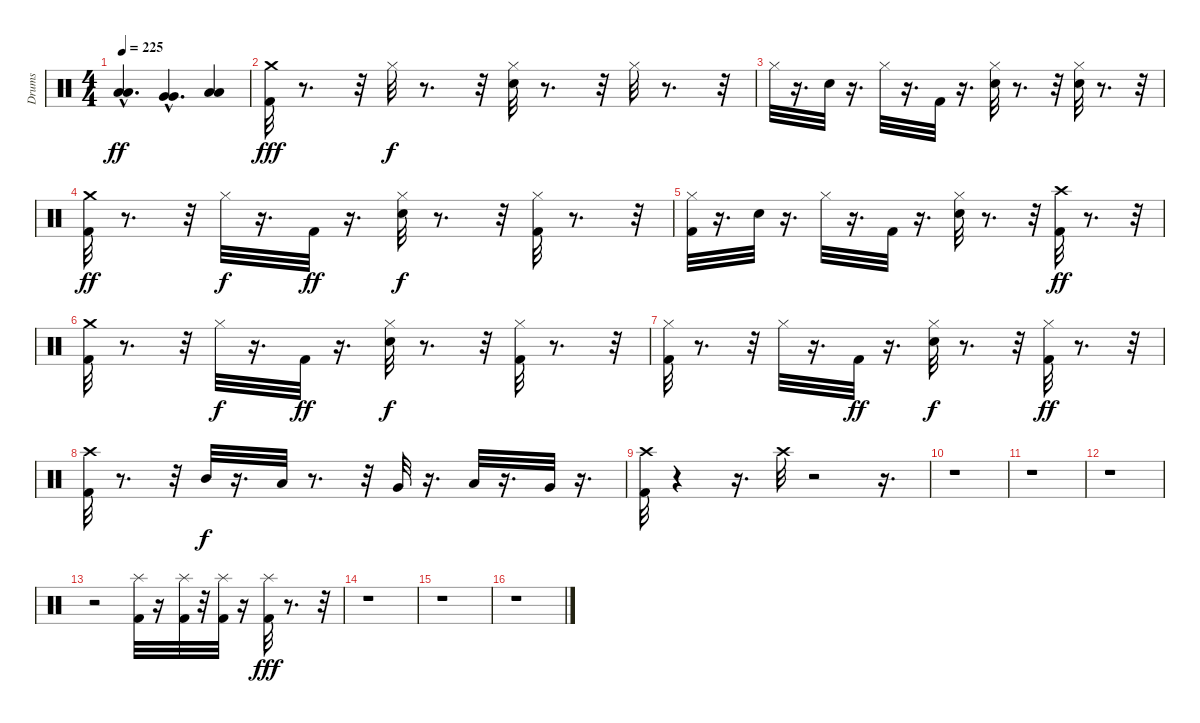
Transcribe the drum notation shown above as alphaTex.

\track ("Drums" "Drums") {instrument percussion}
\staff {score}
\articulation defaults
\ts (4 4)
\tempo 225
\clef neutral
\ks c
("Low Tom (hit)"{hac} "Low Tom (hit)").4{d dy ff} ("Very Low Tom (hit)"{hac} "Very Low Tom (hit)").4{d} ("Low Floor Tom (hit)" "Low Floor Tom (hit)").4 |
("Kick (hit) 2" "Crash medium (hit)").32{dy fff} r.8{d} r.32 "Hi-Hat (closed)".32{dy f} r.8{d} r.32 ("Hi-Hat (closed)" "Snare (hit) 2").32 r.8{d} r.32 "Hi-Hat (closed)".32 r.8{d} r.32 |
"Hi-Hat (closed)".32 r.16{d} "Snare (hit) 2".32 r.16{d} "Hi-Hat (closed)".32 r.16{d} "Kick (hit) 2".32 r.16{d} ("Hi-Hat (closed)" "Snare (hit) 2").32 r.8{d} r.32 ("Hi-Hat (closed)" "Snare (hit) 2").32 r.8{d} r.32 |
("Crash medium (hit)" "Kick (hit) 2").32{dy ff} r.8{d} r.32 "Hi-Hat (closed)".32{dy f} r.16{d} "Kick (hit) 2".32{dy ff} r.16{d} ("Hi-Hat (closed)" "Snare (hit) 2").32{dy f} r.8{d} r.32 ("Kick (hit) 2" "Hi-Hat (closed)").32 r.8{d} r.32 |
("Kick (hit) 2" "Hi-Hat (closed)").32 r.16{d} "Snare (hit) 2".32 r.16{d} "Hi-Hat (closed)".32 r.16{d} "Kick (hit) 2".32 r.16{d} ("Hi-Hat (closed)" "Snare (hit) 2").32 r.8{d} r.32 ("Kick (hit) 2" "Crash high (hit)").32{dy ff} r.8{d} r.32 |
("Kick (hit) 2" "Crash medium (hit)").32 r.8{d} r.32 "Hi-Hat (closed)".32{dy f} r.16{d} "Kick (hit) 2".32{dy ff} r.16{d} ("Snare (hit) 2" "Hi-Hat (closed)").32{dy f} r.8{d} r.32 ("Kick (hit) 2" "Hi-Hat (closed)").32 r.8{d} r.32 |
("Kick (hit) 2" "Hi-Hat (closed)").32 r.8{d} r.32 "Hi-Hat (closed)".32 r.16{d} "Kick (hit) 2".32{dy ff} r.16{d} ("Snare (hit) 2" "Hi-Hat (closed)").32{dy f} r.8{d} r.32 ("Hi-Hat (closed)" "Kick (hit) 2").32{dy ff} r.8{d} r.32 |
("Crash high (hit)" "Kick (hit) 2").32 r.8{d} r.32 "Mid Tom (hit)".32{dy f} r.16{d} "Low Tom (hit)".32 r.8{d} r.32 "Very Low Tom (hit)".32 r.16{d} "Low Tom (hit)".32 r.16{d} "Very Low Tom (hit)".32 r.16{d} |
("Crash high (hit)" "Kick (hit) 2").32 r.4 r.16{d} "Crash high (hit)".32 r.2 r.16{d} |
r.1 |
r.1 |
r.1 |
r.2 ("Kick (hit) 2" "Splash (hit)").32 r.16 ("Kick (hit) 2" "Splash (hit)").32 r.32 ("Kick (hit) 2" "Splash (hit)").32 r.16 ("Kick (hit) 2" "Splash (hit)").32{dy fff} r.8{d} r.32 |
r.1 |
r.1 |
r.1
